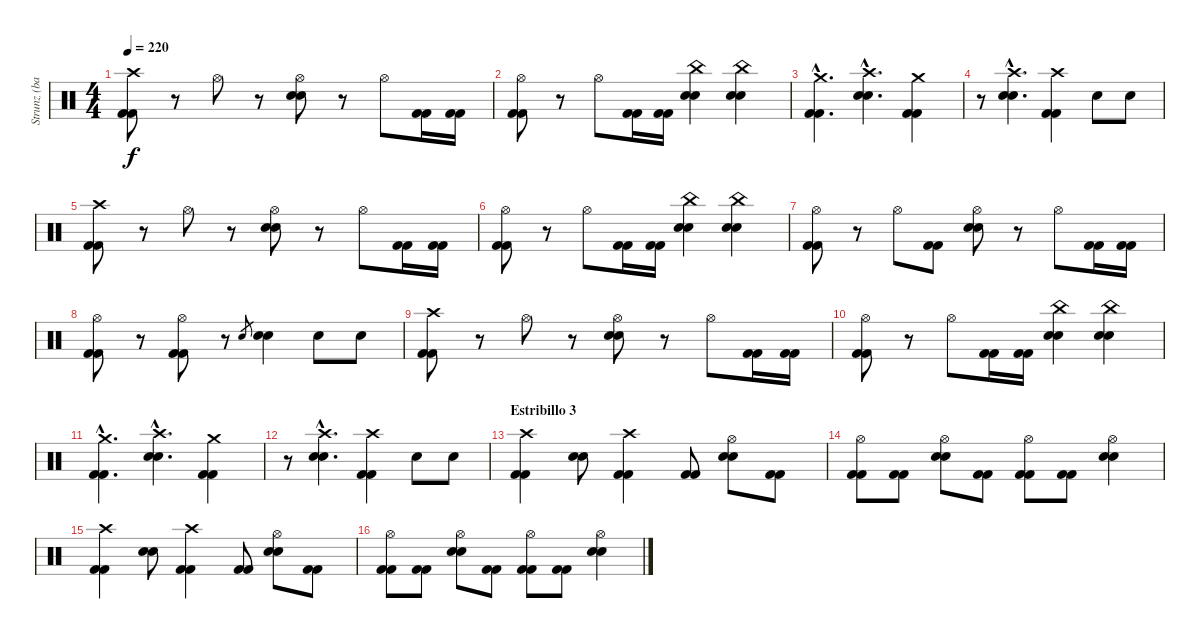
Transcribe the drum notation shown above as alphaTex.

\track ("Strunz (bateria)" "Strunz (ba") {instrument percussion}
\staff {score}
\articulation defaults
\ts (4 4)
\tempo 220
\clef neutral
\ks c
("Crash high (hit)" "Kick (hit) 2" "Kick (hit) 2").8{dy f} r.8 "Hi-Hat (open)".8 r.8 ("Hi-Hat (open)" "Snare (hit) 2" "Snare (hit) 2").8 r.8 "Hi-Hat (open)".8 ("Kick (hit) 2" "Kick (hit) 2").16 ("Kick (hit) 2" "Kick (hit) 2").16 |
("Hi-Hat (open)" "Kick (hit) 2" "Kick (hit) 2").8 r.8 "Hi-Hat (open)".8 ("Kick (hit) 2" "Kick (hit) 2").16 ("Kick (hit) 2" "Kick (hit) 2").16 ("China (hit)" "Snare (hit) 2" "Snare (hit) 2").4 ("China (hit)" "Snare (hit) 2" "Snare (hit) 2").4 |
("Crash medium (hit)"{hac} "Kick (hit) 2"{hac} "Kick (hit) 2"{hac}).4{d} ("Crash high (hit)"{hac} "Snare (hit) 2"{hac} "Snare (hit) 2"{hac}).4{d} ("Crash medium (hit)" "Kick (hit) 2" "Kick (hit) 2").4 |
r.8 ("Crash high (hit)"{hac} "Snare (hit) 2"{hac} "Snare (hit) 2"{hac}).4{d} ("Crash high (hit)" "Kick (hit) 2" "Kick (hit) 2").4 "Electric Snare (hit)".8 "Electric Snare (hit)".8 |
("Crash high (hit)" "Kick (hit) 2" "Kick (hit) 2").8 r.8 "Hi-Hat (open)".8 r.8 ("Hi-Hat (open)" "Snare (hit) 2" "Snare (hit) 2").8 r.8 "Hi-Hat (open)".8 ("Kick (hit) 2" "Kick (hit) 2").16 ("Kick (hit) 2" "Kick (hit) 2").16 |
("Hi-Hat (open)" "Kick (hit) 2" "Kick (hit) 2").8 r.8 "Hi-Hat (open)".8 ("Kick (hit) 2" "Kick (hit) 2").16 ("Kick (hit) 2" "Kick (hit) 2").16 ("China (hit)" "Snare (hit) 2" "Snare (hit) 2").4 ("China (hit)" "Snare (hit) 2" "Snare (hit) 2").4 |
("Hi-Hat (open)" "Kick (hit) 2" "Kick (hit) 2").8 r.8 "Hi-Hat (open)".8 ("Kick (hit) 2" "Kick (hit) 2").8 ("Hi-Hat (open)" "Snare (hit) 2" "Snare (hit) 2").8 r.8 "Hi-Hat (open)".8 ("Kick (hit) 2" "Kick (hit) 2").16 ("Kick (hit) 2" "Kick (hit) 2").16 |
("Hi-Hat (open)" "Kick (hit) 2" "Kick (hit) 2").8 r.8 ("Hi-Hat (open)" "Kick (hit) 2" "Kick (hit) 2").8 r.8 "Electric Snare (hit)".8{gr} ("Electric Snare (hit)" "Electric Snare (hit)").4 "Electric Snare (hit)".8 "Electric Snare (hit)".8 |
("Crash high (hit)" "Kick (hit) 2" "Kick (hit) 2").8 r.8 "Hi-Hat (open)".8 r.8 ("Hi-Hat (open)" "Snare (hit) 2" "Snare (hit) 2").8 r.8 "Hi-Hat (open)".8 ("Kick (hit) 2" "Kick (hit) 2").16 ("Kick (hit) 2" "Kick (hit) 2").16 |
("Hi-Hat (open)" "Kick (hit) 2" "Kick (hit) 2").8 r.8 "Hi-Hat (open)".8 ("Kick (hit) 2" "Kick (hit) 2").16 ("Kick (hit) 2" "Kick (hit) 2").16 ("China (hit)" "Snare (hit) 2" "Snare (hit) 2").4 ("China (hit)" "Snare (hit) 2" "Snare (hit) 2").4 |
("Crash medium (hit)"{hac} "Kick (hit) 2"{hac} "Kick (hit) 2"{hac}).4{d} ("Crash high (hit)"{hac} "Snare (hit) 2"{hac} "Snare (hit) 2"{hac}).4{d} ("Crash medium (hit)" "Kick (hit) 2" "Kick (hit) 2").4 |
r.8 ("Crash high (hit)"{hac} "Snare (hit) 2"{hac} "Snare (hit) 2"{hac}).4{d} ("Crash high (hit)" "Kick (hit) 2" "Kick (hit) 2").4 "Electric Snare (hit)".8 "Electric Snare (hit)".8 |
\section ("" "Estribillo 3")
("Crash high (hit)" "Kick (hit) 2" "Kick (hit) 2").4 ("Snare (hit) 2" "Snare (hit) 2").8 ("Crash high (hit)" "Kick (hit) 2" "Kick (hit) 2").4 ("Kick (hit) 2" "Kick (hit) 2").8 ("Hi-Hat (open)" "Snare (hit) 2" "Snare (hit) 2").8 ("Kick (hit) 2" "Kick (hit) 2").8 |
("Hi-Hat (open)" "Kick (hit) 2" "Kick (hit) 2").8 ("Kick (hit) 2" "Kick (hit) 2").8 ("Hi-Hat (open)" "Snare (hit) 2" "Snare (hit) 2").8 ("Kick (hit) 2" "Kick (hit) 2").8 ("Hi-Hat (open)" "Kick (hit) 2" "Kick (hit) 2").8 ("Kick (hit) 2" "Kick (hit) 2").8 ("Hi-Hat (open)" "Snare (hit) 2" "Snare (hit) 2").4 |
("Crash high (hit)" "Kick (hit) 2" "Kick (hit) 2").4 ("Snare (hit) 2" "Snare (hit) 2").8 ("Crash high (hit)" "Kick (hit) 2" "Kick (hit) 2").4 ("Kick (hit) 2" "Kick (hit) 2").8 ("Hi-Hat (open)" "Snare (hit) 2" "Snare (hit) 2").8 ("Kick (hit) 2" "Kick (hit) 2").8 |
("Hi-Hat (open)" "Kick (hit) 2" "Kick (hit) 2").8 ("Kick (hit) 2" "Kick (hit) 2").8 ("Hi-Hat (open)" "Snare (hit) 2" "Snare (hit) 2").8 ("Kick (hit) 2" "Kick (hit) 2").8 ("Hi-Hat (open)" "Kick (hit) 2" "Kick (hit) 2").8 ("Kick (hit) 2" "Kick (hit) 2").8 ("Hi-Hat (open)" "Snare (hit) 2" "Snare (hit) 2").4
